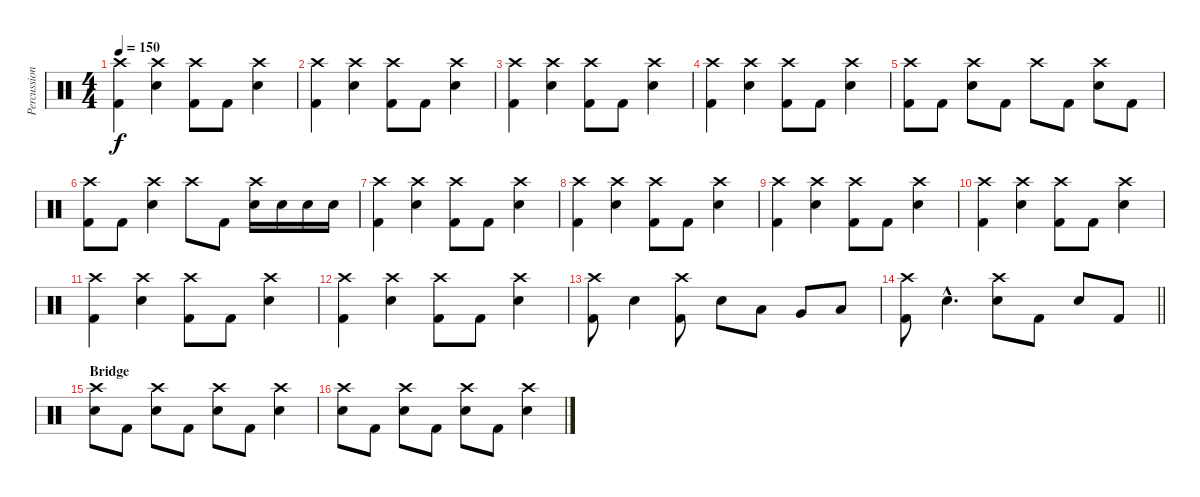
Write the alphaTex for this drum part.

\track ("Percussion" "Percussion") {instrument percussion}
\staff {score}
\articulation defaults
\ts (4 4)
\tempo 150
\clef neutral
\ks c
("Crash high (hit)" "Kick (hit) 2").4{dy f} ("Crash high (hit)" "Electric Snare (hit)").4 ("Crash high (hit)" "Kick (hit) 2").8 "Kick (hit) 2".8 ("Crash high (hit)" "Electric Snare (hit)").4 |
("Crash high (hit)" "Kick (hit) 2").4 ("Crash high (hit)" "Electric Snare (hit)").4 ("Crash high (hit)" "Kick (hit) 2").8 "Kick (hit) 2".8 ("Crash high (hit)" "Electric Snare (hit)").4 |
("Crash high (hit)" "Kick (hit) 2").4 ("Crash high (hit)" "Electric Snare (hit)").4 ("Crash high (hit)" "Kick (hit) 2").8 "Kick (hit) 2".8 ("Crash high (hit)" "Electric Snare (hit)").4 |
("Crash high (hit)" "Kick (hit) 2").4 ("Crash high (hit)" "Electric Snare (hit)").4 ("Crash high (hit)" "Kick (hit) 2").8 "Kick (hit) 2".8 ("Crash high (hit)" "Electric Snare (hit)").4 |
("Crash high (hit)" "Kick (hit) 2").8 "Kick (hit) 2".8 ("Crash high (hit)" "Electric Snare (hit)").8 "Kick (hit) 2".8 "Crash high (hit)".8 "Kick (hit) 2".8 ("Crash high (hit)" "Electric Snare (hit)").8 "Kick (hit) 2".8 |
("Crash high (hit)" "Kick (hit) 2").8 "Kick (hit) 2".8 ("Crash high (hit)" "Electric Snare (hit)").4 "Crash high (hit)".8 "Kick (hit) 2".8 ("Crash high (hit)" "Electric Snare (hit)").16 "Electric Snare (hit)".16 "Electric Snare (hit)".16 "Electric Snare (hit)".16 |
("Crash high (hit)" "Kick (hit) 2").4 ("Crash high (hit)" "Electric Snare (hit)").4 ("Crash high (hit)" "Kick (hit) 2").8 "Kick (hit) 2".8 ("Crash high (hit)" "Electric Snare (hit)").4 |
("Crash high (hit)" "Kick (hit) 2").4 ("Crash high (hit)" "Electric Snare (hit)").4 ("Crash high (hit)" "Kick (hit) 2").8 "Kick (hit) 2".8 ("Crash high (hit)" "Electric Snare (hit)").4 |
("Crash high (hit)" "Kick (hit) 2").4 ("Crash high (hit)" "Electric Snare (hit)").4 ("Crash high (hit)" "Kick (hit) 2").8 "Kick (hit) 2".8 ("Crash high (hit)" "Electric Snare (hit)").4 |
("Crash high (hit)" "Kick (hit) 2").4 ("Crash high (hit)" "Electric Snare (hit)").4 ("Crash high (hit)" "Kick (hit) 2").8 "Kick (hit) 2".8 ("Crash high (hit)" "Electric Snare (hit)").4 |
("Crash high (hit)" "Kick (hit) 2").4 ("Crash high (hit)" "Electric Snare (hit)").4 ("Crash high (hit)" "Kick (hit) 2").8 "Kick (hit) 2".8 ("Crash high (hit)" "Electric Snare (hit)").4 |
("Crash high (hit)" "Kick (hit) 2").4 ("Crash high (hit)" "Electric Snare (hit)").4 ("Crash high (hit)" "Kick (hit) 2").8 "Kick (hit) 2".8 ("Crash high (hit)" "Electric Snare (hit)").4 |
("Crash high (hit)" "Kick (hit) 2").8 "Electric Snare (hit)".4 ("Crash high (hit)" "Kick (hit) 2").8 "Electric Snare (hit)".8 "Low Tom (hit)".8 "Very Low Tom (hit)".8 "Low Floor Tom (hit)".8 |
\barLineRight lightlight
("Crash high (hit)" "Kick (hit) 2").8 "Electric Snare (hit)"{hac}.4{d} ("Crash high (hit)" "Electric Snare (hit)").8 "Kick (hit) 2".8 "Electric Snare (hit)".8 "Kick (hit) 2".8 |
\section ("" "Bridge")
("Crash high (hit)" "Electric Snare (hit)").8 "Kick (hit) 2".8 ("Crash high (hit)" "Electric Snare (hit)").8 "Kick (hit) 2".8 ("Crash high (hit)" "Electric Snare (hit)").8 "Kick (hit) 2".8 ("Crash high (hit)" "Electric Snare (hit)").4 |
("Crash high (hit)" "Electric Snare (hit)").8 "Kick (hit) 2".8 ("Crash high (hit)" "Electric Snare (hit)").8 "Kick (hit) 2".8 ("Crash high (hit)" "Electric Snare (hit)").8 "Kick (hit) 2".8 ("Crash high (hit)" "Electric Snare (hit)").4
